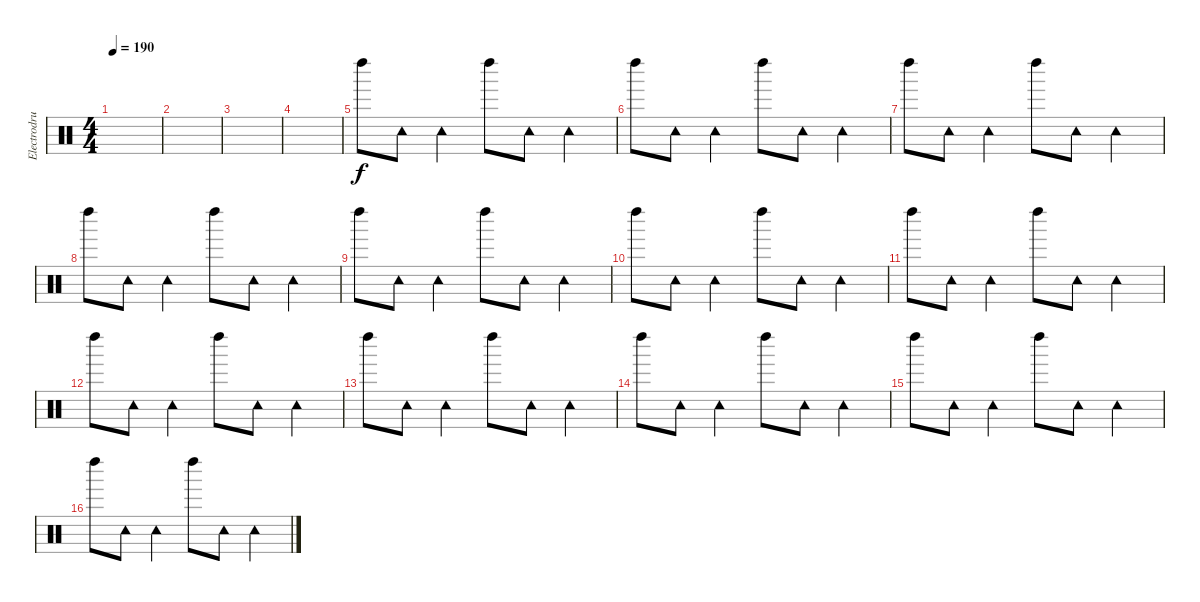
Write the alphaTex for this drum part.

\track ("Electrodrums2" "Electrodru") {instrument percussion}
\staff {score}
\articulation defaults
\ts (4 4)
\tempo 190
\clef neutral
\ks c
|
|
|
|
"Left Maraca (hit)".8 "Tambourine (hit)".8 "Tambourine (hit)".4 "Left Maraca (hit)".8 "Tambourine (hit)".8 "Tambourine (hit)".4 |
"Left Maraca (hit)".8 "Tambourine (hit)".8 "Tambourine (hit)".4 "Left Maraca (hit)".8 "Tambourine (hit)".8 "Tambourine (hit)".4 |
"Left Maraca (hit)".8 "Tambourine (hit)".8 "Tambourine (hit)".4 "Left Maraca (hit)".8 "Tambourine (hit)".8 "Tambourine (hit)".4 |
"Left Maraca (hit)".8 "Tambourine (hit)".8 "Tambourine (hit)".4 "Left Maraca (hit)".8 "Tambourine (hit)".8 "Tambourine (hit)".4 |
"Left Maraca (hit)".8 "Tambourine (hit)".8 "Tambourine (hit)".4 "Left Maraca (hit)".8 "Tambourine (hit)".8 "Tambourine (hit)".4 |
"Left Maraca (hit)".8 "Tambourine (hit)".8 "Tambourine (hit)".4 "Left Maraca (hit)".8 "Tambourine (hit)".8 "Tambourine (hit)".4 |
"Left Maraca (hit)".8 "Tambourine (hit)".8 "Tambourine (hit)".4 "Left Maraca (hit)".8 "Tambourine (hit)".8 "Tambourine (hit)".4 |
"Left Maraca (hit)".8 "Tambourine (hit)".8 "Tambourine (hit)".4 "Left Maraca (hit)".8 "Tambourine (hit)".8 "Tambourine (hit)".4 |
"Left Maraca (hit)".8 "Tambourine (hit)".8 "Tambourine (hit)".4 "Left Maraca (hit)".8 "Tambourine (hit)".8 "Tambourine (hit)".4 |
"Left Maraca (hit)".8 "Tambourine (hit)".8 "Tambourine (hit)".4 "Left Maraca (hit)".8 "Tambourine (hit)".8 "Tambourine (hit)".4 |
"Left Maraca (hit)".8 "Tambourine (hit)".8 "Tambourine (hit)".4 "Left Maraca (hit)".8 "Tambourine (hit)".8 "Tambourine (hit)".4 |
"Left Maraca (hit)".8 "Tambourine (hit)".8 "Tambourine (hit)".4 "Left Maraca (hit)".8 "Tambourine (hit)".8 "Tambourine (hit)".4
